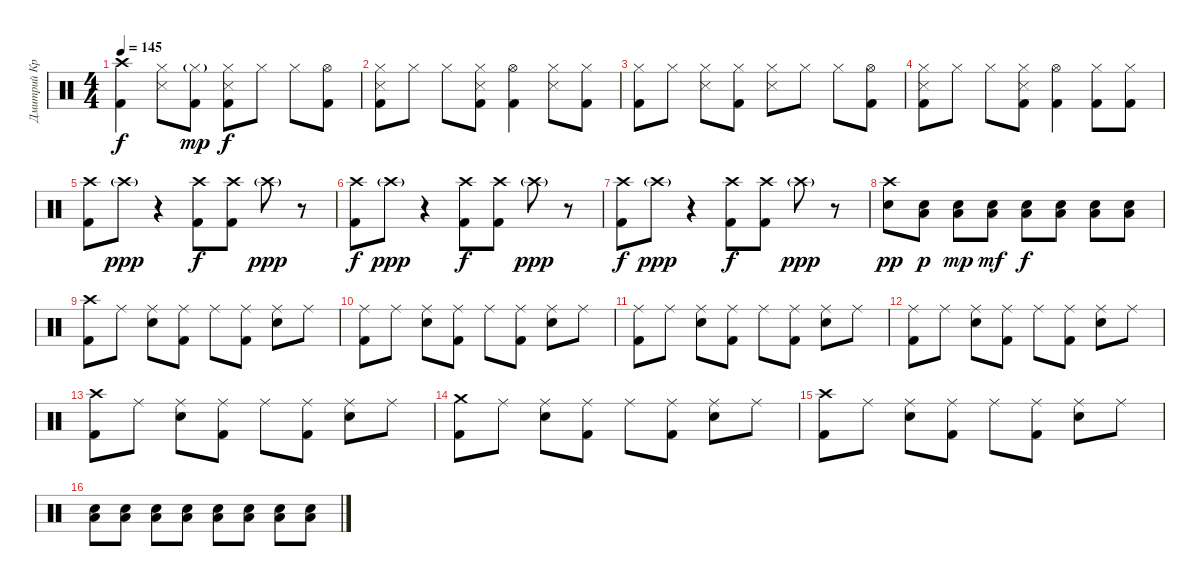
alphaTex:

\track ("Дмитрий Кривенков" "Дмитрий Кр") {instrument percussion}
\staff {score}
\articulation defaults
\ts (4 4)
\tempo 145
\clef neutral
\ks c
("Crash high (hit)" "Kick (hit) 2").4{dy f} ("Hi-Hat (closed)" "Snare (side stick) 3").8 ("Hi-Hat (closed)"{g} "Kick (hit) 2").8{dy mp} ("Hi-Hat (closed)" "Snare (side stick) 3" "Kick (hit) 2").8{dy f} "Hi-Hat (closed)".8 "Hi-Hat (closed)".8 ("Hi-Hat (open)" "Kick (hit) 2").8 |
("Hi-Hat (closed)" "Snare (side stick) 3" "Kick (hit) 2").8 "Hi-Hat (closed)".8 "Hi-Hat (closed)".8 ("Hi-Hat (closed)" "Snare (side stick) 3" "Kick (hit) 2").8 ("Hi-Hat (open)" "Kick (hit) 2").4 ("Hi-Hat (closed)" "Snare (side stick) 3").8 ("Hi-Hat (closed)" "Kick (hit) 2").8 |
("Hi-Hat (closed)" "Kick (hit) 2").8 "Hi-Hat (closed)".8 ("Hi-Hat (closed)" "Snare (side stick) 3").8 ("Hi-Hat (closed)" "Kick (hit) 2").8 ("Hi-Hat (closed)" "Snare (side stick) 3").8 "Hi-Hat (closed)".8 "Hi-Hat (closed)".8 ("Hi-Hat (open)" "Kick (hit) 2").8 |
("Hi-Hat (closed)" "Snare (side stick) 3" "Kick (hit) 2").8 "Hi-Hat (closed)".8 "Hi-Hat (closed)".8 ("Hi-Hat (closed)" "Snare (side stick) 3" "Kick (hit) 2").8 ("Hi-Hat (open)" "Kick (hit) 2").4 ("Hi-Hat (closed)" "Kick (hit) 2").8 ("Hi-Hat (closed)" "Kick (hit) 2").8 |
("Crash high (hit)" "Kick (hit) 2").8 "Crash high (hit)"{g}.8{dy ppp} r.4 ("Crash high (hit)" "Kick (hit) 2").8{dy f} ("Crash high (hit)" "Kick (hit) 2").8 "Crash high (hit)"{g}.8{dy ppp} r.8 |
("Crash high (hit)" "Kick (hit) 2").8{dy f} "Crash high (hit)"{g}.8{dy ppp} r.4 ("Crash high (hit)" "Kick (hit) 2").8{dy f} ("Crash high (hit)" "Kick (hit) 2").8 "Crash high (hit)"{g}.8{dy ppp} r.8 |
("Crash high (hit)" "Kick (hit) 2").8{dy f} "Crash high (hit)"{g}.8{dy ppp} r.4 ("Crash high (hit)" "Kick (hit) 2").8{dy f} ("Crash high (hit)" "Kick (hit) 2").8 "Crash high (hit)"{g}.8{dy ppp} r.8 |
("Crash high (hit)" "Electric Snare (hit)").8{dy pp} ("Electric Snare (hit)" "Low Floor Tom (hit)").8{dy p} ("Electric Snare (hit)" "Low Floor Tom (hit)").8{dy mp} ("Electric Snare (hit)" "Low Floor Tom (hit)").8{dy mf} ("Electric Snare (hit)" "Low Floor Tom (hit)").8{dy f} ("Electric Snare (hit)" "Low Floor Tom (hit)").8 ("Electric Snare (hit)" "Low Floor Tom (hit)").8 ("Electric Snare (hit)" "Low Floor Tom (hit)").8 |
("Crash high (hit)" "Kick (hit) 2").8 "Ride (middle)".8 ("Ride (middle)" "Electric Snare (hit)").8 ("Ride (middle)" "Kick (hit) 2").8 "Ride (middle)".8 ("Ride (middle)" "Kick (hit) 2").8 ("Ride (middle)" "Electric Snare (hit)").8 "Ride (middle)".8 |
("Ride (middle)" "Kick (hit) 2").8 "Ride (middle)".8 ("Ride (middle)" "Electric Snare (hit)").8 ("Ride (middle)" "Kick (hit) 2").8 "Ride (middle)".8 ("Ride (middle)" "Kick (hit) 2").8 ("Ride (middle)" "Electric Snare (hit)").8 "Ride (middle)".8 |
("Ride (middle)" "Kick (hit) 2").8 "Ride (middle)".8 ("Ride (middle)" "Electric Snare (hit)").8 ("Ride (middle)" "Kick (hit) 2").8 "Ride (middle)".8 ("Ride (middle)" "Kick (hit) 2").8 ("Ride (middle)" "Electric Snare (hit)").8 "Ride (middle)".8 |
("Ride (middle)" "Kick (hit) 2").8 "Ride (middle)".8 ("Ride (middle)" "Electric Snare (hit)").8 ("Ride (middle)" "Kick (hit) 2").8 "Ride (middle)".8 ("Ride (middle)" "Kick (hit) 2").8 ("Ride (middle)" "Electric Snare (hit)").8 "Ride (middle)".8 |
("Crash high (hit)" "Kick (hit) 2").8 "Ride (middle)".8 ("Ride (middle)" "Electric Snare (hit)").8 ("Ride (middle)" "Kick (hit) 2").8 "Ride (middle)".8 ("Ride (middle)" "Kick (hit) 2").8 ("Ride (middle)" "Electric Snare (hit)").8 "Ride (middle)".8 |
("Crash medium (hit)" "Kick (hit) 2").8 "Ride (middle)".8 ("Ride (middle)" "Electric Snare (hit)").8 ("Ride (middle)" "Kick (hit) 2").8 "Ride (middle)".8 ("Ride (middle)" "Kick (hit) 2").8 ("Ride (middle)" "Electric Snare (hit)").8 "Ride (middle)".8 |
("Crash high (hit)" "Kick (hit) 2").8 "Ride (middle)".8 ("Ride (middle)" "Electric Snare (hit)").8 ("Ride (middle)" "Kick (hit) 2").8 "Ride (middle)".8 ("Ride (middle)" "Kick (hit) 2").8 ("Ride (middle)" "Electric Snare (hit)").8 "Ride (middle)".8 |
("Electric Snare (hit)" "Low Floor Tom (hit)").8 ("Electric Snare (hit)" "Low Floor Tom (hit)").8 ("Electric Snare (hit)" "Low Floor Tom (hit)").8 ("Electric Snare (hit)" "Low Floor Tom (hit)").8 ("Electric Snare (hit)" "Low Floor Tom (hit)").8 ("Electric Snare (hit)" "Low Floor Tom (hit)").8 ("Electric Snare (hit)" "Low Floor Tom (hit)").8 ("Electric Snare (hit)" "Low Floor Tom (hit)").8
